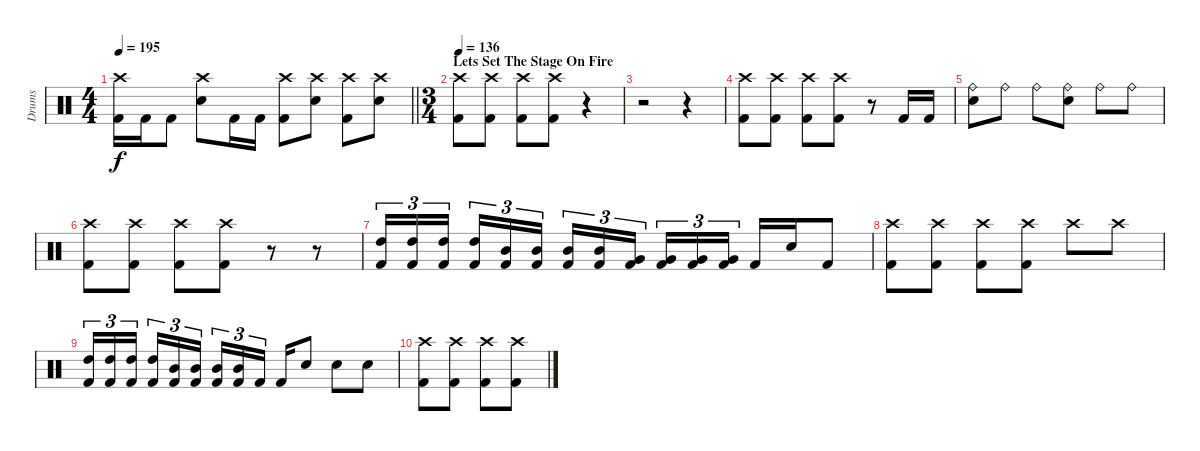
\track ("Drums" "Drums") {instrument percussion}
\staff {score}
\articulation defaults
\ts (4 4)
\tempo 195
\clef neutral
\barLineRight lightlight
\ks c
("Crash high (hit)" "Kick (hit) 2").16{dy f} "Kick (hit) 2".16 "Kick (hit) 2".8 ("Crash high (hit)" "Electric Snare (hit)").8 "Kick (hit) 2".16 "Kick (hit) 2".16 ("Crash high (hit)" "Kick (hit) 2").8 ("Crash high (hit)" "Electric Snare (hit)").8 ("Crash high (hit)" "Kick (hit) 2").8 ("Crash high (hit)" "Electric Snare (hit)").8 |
\ts (3 4)
\section ("" "Lets Set The Stage On Fire")
\tempo 136
("Crash high (hit)" "Kick (hit) 2").8 ("Crash high (hit)" "Kick (hit) 2").8 ("Crash high (hit)" "Kick (hit) 2").8 ("Crash high (hit)" "Kick (hit) 2").8 r.4{volume 0} |
r.2 r.4 |
("Crash high (hit)" "Kick (hit) 2").8{volume 16} ("Crash high (hit)" "Kick (hit) 2").8 ("Crash high (hit)" "Kick (hit) 2").8 ("Crash high (hit)" "Kick (hit) 2").8 r.8 "Kick (hit) 2".16 "Kick (hit) 2".16 |
("Ride (bell)" "Electric Snare (hit)").8 "Ride (bell)".8 "Ride (bell)".8 ("Ride (bell)" "Electric Snare (hit)").8 "Ride (bell)".8 "Ride (bell)".8 |
("Crash high (hit)" "Kick (hit) 2").8 ("Crash high (hit)" "Kick (hit) 2").8 ("Crash high (hit)" "Kick (hit) 2").8 ("Crash high (hit)" "Kick (hit) 2").8 r.8 r.8 |
("High Tom (hit)" "Kick (hit) 2").16{tu (3 2)} ("High Tom (hit)" "Kick (hit) 2").16{tu (3 2)} ("High Tom (hit)" "Kick (hit) 2").16{tu (3 2) beam splitsecondary} ("High Tom (hit)" "Kick (hit) 2").16{tu (3 2)} ("Mid Tom (hit)" "Kick (hit) 2").16{tu (3 2)} ("Mid Tom (hit)" "Kick (hit) 2").16{tu (3 2)} ("Mid Tom (hit)" "Kick (hit) 2").16{tu (3 2)} ("Mid Tom (hit)" "Kick (hit) 2").16{tu (3 2)} ("Very Low Tom (hit)" "Kick (hit) 2").16{tu (3 2) beam splitsecondary} ("Very Low Tom (hit)" "Kick (hit) 2").16{tu (3 2)} ("Very Low Tom (hit)" "Kick (hit) 2").16{tu (3 2)} ("Very Low Tom (hit)" "Kick (hit) 2").16{tu (3 2)} "Kick (hit) 2".16 "Electric Snare (hit)".16 "Kick (hit) 2".8 |
("Crash high (hit)" "Kick (hit) 2").8 ("Crash high (hit)" "Kick (hit) 2").8 ("Crash high (hit)" "Kick (hit) 2").8 ("Crash high (hit)" "Kick (hit) 2").8 "Crash high (hit)".8 "Crash high (hit)".8 |
("High Tom (hit)" "Kick (hit) 2").16{tu (3 2)} ("High Tom (hit)" "Kick (hit) 2").16{tu (3 2)} ("High Tom (hit)" "Kick (hit) 2").16{tu (3 2) beam splitsecondary} ("High Tom (hit)" "Kick (hit) 2").16{tu (3 2)} ("Mid Tom (hit)" "Kick (hit) 2").16{tu (3 2)} ("Mid Tom (hit)" "Kick (hit) 2").16{tu (3 2)} ("Mid Tom (hit)" "Kick (hit) 2").16{tu (3 2)} ("Mid Tom (hit)" "Kick (hit) 2").16{tu (3 2)} "Kick (hit) 2".16{tu (3 2) beam splitsecondary} "Kick (hit) 2".16 "Electric Snare (hit)".8 "Electric Snare (hit)".8 "Electric Snare (hit)".8 |
("Crash high (hit)" "Kick (hit) 2").8 ("Crash high (hit)" "Kick (hit) 2").8 ("Crash high (hit)" "Kick (hit) 2").8 ("Crash high (hit)" "Kick (hit) 2").8
